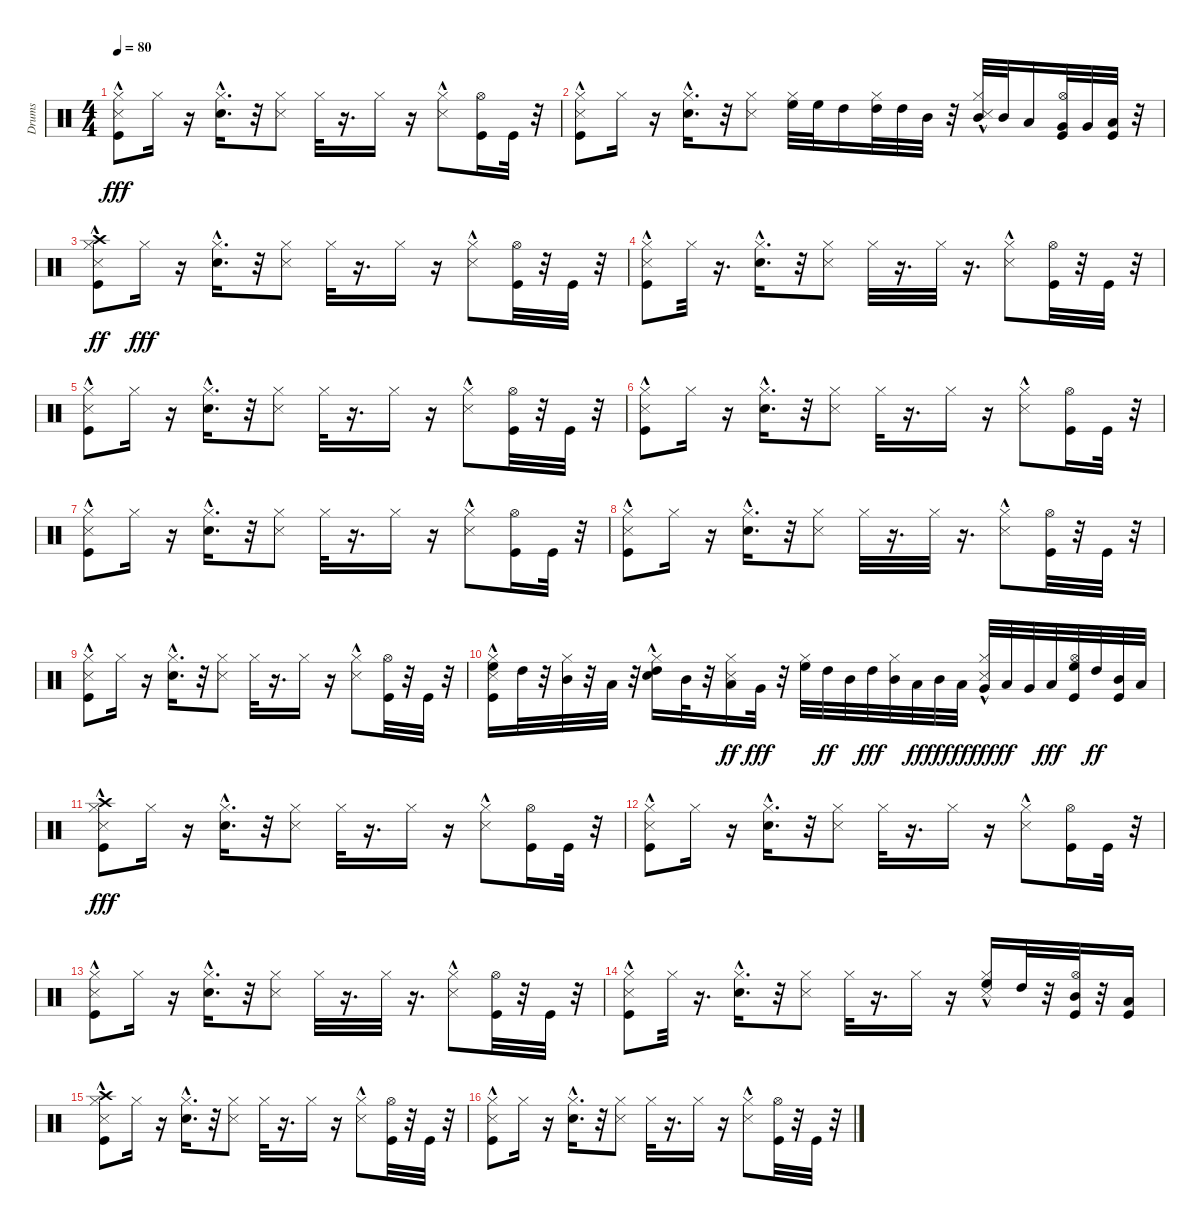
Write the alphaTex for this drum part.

\track ("Drums" "Drums") {instrument percussion}
\staff {score}
\articulation defaults
\ts (4 4)
\tempo 80
\clef neutral
\ks c
("Snare (side stick) 3" "Kick (hit)"{hac} "Hi-Hat (closed)").8{dy fff} "Hi-Hat (closed)".16 r.16 ("Electric Snare (hit)"{hac} "Hi-Hat (closed)").16{d} r.32 ("Snare (side stick) 3" "Hi-Hat (closed)").8 "Hi-Hat (closed)".32 r.16{d} "Hi-Hat (closed)".16 r.16 ("Snare (side stick) 3"{hac} "Hi-Hat (closed)").8 ("Hi-Hat (open)" "Kick (hit)").16 "Kick (hit)".32 r.32 |
("Snare (side stick) 3" "Kick (hit)"{hac} "Hi-Hat (closed)").8 "Hi-Hat (closed)".16 r.16 ("Electric Snare (hit)"{hac} "Hi-Hat (closed)").16{d} r.32 ("Snare (side stick) 3" "Hi-Hat (closed)").8 ("Hi-Hat (closed)" "High Floor Tom (hit)").32 "High Floor Tom (hit)".32 "High Tom (hit)".16 ("Hi-Hat (closed)" "High Tom (hit)").32 "High Tom (hit)".32 "Mid Tom (hit)".32 r.32 ("Snare (side stick) 3"{hac} "Hi-Hat (closed)" "Mid Tom (hit)").32 "Mid Tom (hit)".32 "Low Tom (hit)".16 ("Very Low Tom (hit)" "Hi-Hat (open)" "Kick (hit)").32 "Very Low Tom (hit)".32 ("Kick (hit)" "Low Floor Tom (hit)").32 r.32 |
("Snare (side stick) 3" "Kick (hit)"{hac} "Hi-Hat (closed)" "Crash high (hit)"{hac}).8{dy ff} "Hi-Hat (closed)".16{dy fff} r.16 ("Hi-Hat (closed)" "Electric Snare (hit)"{hac}).16{d} r.32 ("Hi-Hat (closed)" "Snare (side stick) 3").8 "Hi-Hat (closed)".32 r.16{d} "Hi-Hat (closed)".16 r.16 ("Snare (side stick) 3"{hac} "Hi-Hat (closed)").8 ("Hi-Hat (open)" "Kick (hit)").32 r.32 "Kick (hit)".32 r.32 |
("Snare (side stick) 3" "Kick (hit)"{hac} "Hi-Hat (closed)").8 "Hi-Hat (closed)".32 r.16{d} ("Electric Snare (hit)"{hac} "Hi-Hat (closed)").16{d} r.32 ("Snare (side stick) 3" "Hi-Hat (closed)").8 "Hi-Hat (closed)".32 r.16{d} "Hi-Hat (closed)".32 r.16{d} ("Snare (side stick) 3"{hac} "Hi-Hat (closed)").8 ("Hi-Hat (open)" "Kick (hit)").32 r.32 "Kick (hit)".32 r.32 |
("Hi-Hat (closed)" "Snare (side stick) 3" "Kick (hit)"{hac}).8 "Hi-Hat (closed)".16 r.16 ("Electric Snare (hit)"{hac} "Hi-Hat (closed)").16{d} r.32 ("Hi-Hat (closed)" "Snare (side stick) 3").8 "Hi-Hat (closed)".32 r.16{d} "Hi-Hat (closed)".16 r.16 ("Snare (side stick) 3"{hac} "Hi-Hat (closed)").8 ("Hi-Hat (open)" "Kick (hit)").32 r.32 "Kick (hit)".32 r.32 |
("Snare (side stick) 3" "Kick (hit)"{hac} "Hi-Hat (closed)").8 "Hi-Hat (closed)".16 r.16 ("Electric Snare (hit)"{hac} "Hi-Hat (closed)").16{d} r.32 ("Snare (side stick) 3" "Hi-Hat (closed)").8 "Hi-Hat (closed)".32 r.16{d} "Hi-Hat (closed)".16 r.16 ("Snare (side stick) 3"{hac} "Hi-Hat (closed)").8 ("Hi-Hat (open)" "Kick (hit)").16 "Kick (hit)".32 r.32 |
("Snare (side stick) 3" "Kick (hit)"{hac} "Hi-Hat (closed)").8 "Hi-Hat (closed)".16 r.16 ("Electric Snare (hit)"{hac} "Hi-Hat (closed)").16{d} r.32 ("Snare (side stick) 3" "Hi-Hat (closed)").8 "Hi-Hat (closed)".32 r.16{d} "Hi-Hat (closed)".16 r.16 ("Hi-Hat (closed)" "Snare (side stick) 3"{hac}).8 ("Hi-Hat (open)" "Kick (hit)").16 "Kick (hit)".32 r.32 |
("Snare (side stick) 3" "Kick (hit)"{hac} "Hi-Hat (closed)").8 "Hi-Hat (closed)".16 r.16 ("Hi-Hat (closed)" "Electric Snare (hit)"{hac}).16{d} r.32 ("Snare (side stick) 3" "Hi-Hat (closed)").8 "Hi-Hat (closed)".32 r.16{d} "Hi-Hat (closed)".32 r.16{d} ("Snare (side stick) 3"{hac} "Hi-Hat (closed)").8 ("Hi-Hat (open)" "Kick (hit)").32 r.32 "Kick (hit)".32 r.32 |
("Snare (side stick) 3" "Kick (hit)"{hac} "Hi-Hat (closed)").8 "Hi-Hat (closed)".16 r.16 ("Electric Snare (hit)"{hac} "Hi-Hat (closed)").16{d} r.32 ("Snare (side stick) 3" "Hi-Hat (closed)").8 "Hi-Hat (closed)".32 r.16{d} "Hi-Hat (closed)".16 r.16 ("Snare (side stick) 3"{hac} "Hi-Hat (closed)").8 ("Kick (hit)" "Hi-Hat (open)").32 r.32 "Kick (hit)".32 r.32 |
("Snare (side stick) 3" "Kick (hit)"{hac} "Hi-Hat (closed)" "High Floor Tom (hit)").16 "High Tom (hit)".32 r.32 ("Hi-Hat (closed)" "Mid Tom (hit)").32 r.32 "Low Tom (hit)".32 r.32 ("High Tom (hit)" "Electric Snare (hit)"{hac} "Hi-Hat (closed)").16 "Mid Tom (hit)".32 r.32 ("Snare (side stick) 3" "Hi-Hat (closed)" "Low Tom (hit)").16{dy ff} "Very Low Tom (hit)".32{dy fff} r.32 ("Hi-Hat (closed)" "High Floor Tom (hit)").32 "High Tom (hit)".32{dy ff} "Mid Tom (hit)".32 "High Tom (hit)".32{dy fff} ("Mid Tom (hit)" "Hi-Hat (closed)").32 "Low Tom (hit)".32{dy ff} "Mid Tom (hit)".32{dy fff} "Low Tom (hit)".32{dy ff} ("Snare (side stick) 3"{hac} "Hi-Hat (closed)" "Very Low Tom (hit)").32{dy fff} "Low Tom (hit)".32{dy ff} "Very Low Tom (hit)".32 "Low Floor Tom (hit)".32{dy fff} ("High Floor Tom (hit)" "Hi-Hat (open)" "Kick (hit)").32 "High Tom (hit)".32{dy ff} ("Kick (hit)" "Mid Tom (hit)").32 "Low Tom (hit)".32 |
("Snare (side stick) 3" "Kick (hit)"{hac} "Hi-Hat (closed)" "Crash high (hit)"{hac}).8{dy fff} "Hi-Hat (closed)".16 r.16 ("Electric Snare (hit)"{hac} "Hi-Hat (closed)").16{d} r.32 ("Snare (side stick) 3" "Hi-Hat (closed)").8 "Hi-Hat (closed)".32 r.16{d} "Hi-Hat (closed)".16 r.16 ("Snare (side stick) 3"{hac} "Hi-Hat (closed)").8 ("Hi-Hat (open)" "Kick (hit)").16 "Kick (hit)".32 r.32 |
("Snare (side stick) 3" "Kick (hit)"{hac} "Hi-Hat (closed)").8 "Hi-Hat (closed)".16 r.16 ("Electric Snare (hit)"{hac} "Hi-Hat (closed)").16{d} r.32 ("Snare (side stick) 3" "Hi-Hat (closed)").8 "Hi-Hat (closed)".32 r.16{d} "Hi-Hat (closed)".16 r.16 ("Hi-Hat (closed)" "Snare (side stick) 3"{hac}).8 ("Hi-Hat (open)" "Kick (hit)").16 "Kick (hit)".32 r.32 |
("Snare (side stick) 3" "Kick (hit)"{hac} "Hi-Hat (closed)").8 "Hi-Hat (closed)".16 r.16 ("Hi-Hat (closed)" "Electric Snare (hit)"{hac}).16{d} r.32 ("Snare (side stick) 3" "Hi-Hat (closed)").8 "Hi-Hat (closed)".32 r.16{d} "Hi-Hat (closed)".32 r.16{d} ("Snare (side stick) 3"{hac} "Hi-Hat (closed)").8 ("Hi-Hat (open)" "Kick (hit)").32 r.32 "Kick (hit)".32 r.32 |
("Snare (side stick) 3" "Kick (hit)"{hac} "Hi-Hat (closed)").8 "Hi-Hat (closed)".32 r.16{d} ("Electric Snare (hit)"{hac} "Hi-Hat (closed)").16{d} r.32 ("Snare (side stick) 3" "Hi-Hat (closed)").8 "Hi-Hat (closed)".32 r.16{d} "Hi-Hat (closed)".16 r.16 ("High Floor Tom (hit)" "Snare (side stick) 3"{hac} "Hi-Hat (closed)").16 "High Tom (hit)".32 r.32 ("Hi-Hat (open)" "Kick (hit)" "Mid Tom (hit)").32 r.32 ("Kick (hit)" "Low Tom (hit)").16 |
("Snare (side stick) 3" "Kick (hit)"{hac} "Hi-Hat (closed)" "Crash high (hit)"{hac}).8 "Hi-Hat (closed)".16 r.16 ("Electric Snare (hit)"{hac} "Hi-Hat (closed)").16{d} r.32 ("Hi-Hat (closed)" "Snare (side stick) 3").8 "Hi-Hat (closed)".32 r.16{d} "Hi-Hat (closed)".16 r.16 ("Snare (side stick) 3"{hac} "Hi-Hat (closed)").8 ("Kick (hit)" "Hi-Hat (open)").32 r.32 "Kick (hit)".32 r.32 |
("Snare (side stick) 3" "Kick (hit)"{hac} "Hi-Hat (closed)").8 "Hi-Hat (closed)".16 r.16 ("Electric Snare (hit)"{hac} "Hi-Hat (closed)").16{d} r.32 ("Snare (side stick) 3" "Hi-Hat (closed)").8 "Hi-Hat (closed)".32 r.16{d} "Hi-Hat (closed)".16 r.16 ("Snare (side stick) 3"{hac} "Hi-Hat (closed)").8 ("Kick (hit)" "Hi-Hat (open)").32 r.32 "Kick (hit)".32 r.32
